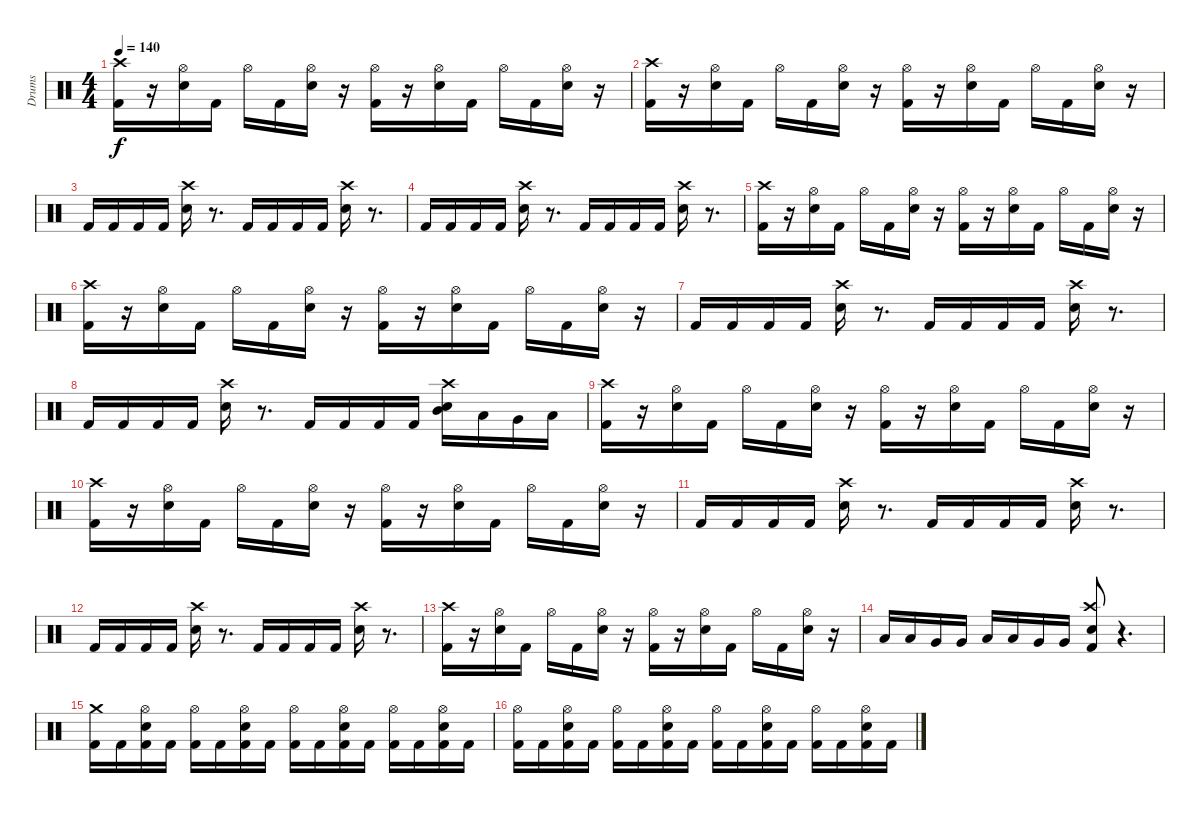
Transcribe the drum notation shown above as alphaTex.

\track ("Drums" "Drums") {instrument percussion}
\staff {score}
\articulation defaults
\ts (4 4)
\tempo 140
\clef neutral
\ks c
("Kick (hit) 2" "Crash high (hit)").16{dy f} r.16 ("Electric Snare (hit)" "Hi-Hat (open)").16 "Kick (hit) 2".16 "Hi-Hat (open)".16 "Kick (hit) 2".16 ("Hi-Hat (open)" "Electric Snare (hit)").16 r.16 ("Hi-Hat (open)" "Kick (hit) 2").16 r.16 ("Electric Snare (hit)" "Hi-Hat (open)").16 "Kick (hit) 2".16 "Hi-Hat (open)".16 "Kick (hit) 2".16 ("Hi-Hat (open)" "Electric Snare (hit)").16 r.16 |
("Kick (hit) 2" "Crash high (hit)").16 r.16 ("Electric Snare (hit)" "Hi-Hat (open)").16 "Kick (hit) 2".16 "Hi-Hat (open)".16 "Kick (hit) 2".16 ("Electric Snare (hit)" "Hi-Hat (open)").16 r.16 ("Hi-Hat (open)" "Kick (hit) 2").16 r.16 ("Hi-Hat (open)" "Electric Snare (hit)").16 "Kick (hit) 2".16 "Hi-Hat (open)".16 "Kick (hit) 2".16 ("Electric Snare (hit)" "Hi-Hat (open)").16 r.16 |
"Kick (hit) 2".16 "Kick (hit) 2".16 "Kick (hit) 2".16 "Kick (hit) 2".16 ("Crash high (hit)" "Electric Snare (hit)").16 r.8{d} "Kick (hit) 2".16 "Kick (hit) 2".16 "Kick (hit) 2".16 "Kick (hit) 2".16 ("Electric Snare (hit)" "Crash high (hit)").16 r.8{d} |
"Kick (hit) 2".16 "Kick (hit) 2".16 "Kick (hit) 2".16 "Kick (hit) 2".16 ("Electric Snare (hit)" "Crash high (hit)").16 r.8{d} "Kick (hit) 2".16 "Kick (hit) 2".16 "Kick (hit) 2".16 "Kick (hit) 2".16 ("Electric Snare (hit)" "Crash high (hit)").16 r.8{d} |
("Kick (hit) 2" "Crash high (hit)").16 r.16 ("Hi-Hat (open)" "Electric Snare (hit)").16 "Kick (hit) 2".16 "Hi-Hat (open)".16 "Kick (hit) 2".16 ("Hi-Hat (open)" "Electric Snare (hit)").16 r.16 ("Hi-Hat (open)" "Kick (hit) 2").16 r.16 ("Hi-Hat (open)" "Electric Snare (hit)").16 "Kick (hit) 2".16 "Hi-Hat (open)".16 "Kick (hit) 2".16 ("Electric Snare (hit)" "Hi-Hat (open)").16 r.16 |
("Crash high (hit)" "Kick (hit) 2").16 r.16 ("Hi-Hat (open)" "Electric Snare (hit)").16 "Kick (hit) 2".16 "Hi-Hat (open)".16 "Kick (hit) 2".16 ("Hi-Hat (open)" "Electric Snare (hit)").16 r.16 ("Kick (hit) 2" "Hi-Hat (open)").16 r.16 ("Electric Snare (hit)" "Hi-Hat (open)").16 "Kick (hit) 2".16 "Hi-Hat (open)".16 "Kick (hit) 2".16 ("Hi-Hat (open)" "Electric Snare (hit)").16 r.16 |
"Kick (hit) 2".16 "Kick (hit) 2".16 "Kick (hit) 2".16 "Kick (hit) 2".16 ("Electric Snare (hit)" "Crash high (hit)").16 r.8{d} "Kick (hit) 2".16 "Kick (hit) 2".16 "Kick (hit) 2".16 "Kick (hit) 2".16 ("Crash high (hit)" "Electric Snare (hit)").16 r.8{d} |
"Kick (hit) 2".16 "Kick (hit) 2".16 "Kick (hit) 2".16 "Kick (hit) 2".16 ("Electric Snare (hit)" "Crash high (hit)").16 r.8{d} "Kick (hit) 2".16 "Kick (hit) 2".16 "Kick (hit) 2".16 "Kick (hit) 2".16 ("Mid Tom (hit)" "Crash high (hit)" "Electric Snare (hit)").16 "Low Tom (hit)".16 "Very Low Tom (hit)".16 "Low Floor Tom (hit)".16 |
("Kick (hit) 2" "Crash high (hit)").16 r.16 ("Hi-Hat (open)" "Electric Snare (hit)").16 "Kick (hit) 2".16 "Hi-Hat (open)".16 "Kick (hit) 2".16 ("Hi-Hat (open)" "Electric Snare (hit)").16 r.16 ("Hi-Hat (open)" "Kick (hit) 2").16 r.16 ("Electric Snare (hit)" "Hi-Hat (open)").16 "Kick (hit) 2".16 "Hi-Hat (open)".16 "Kick (hit) 2".16 ("Hi-Hat (open)" "Electric Snare (hit)").16 r.16 |
("Kick (hit) 2" "Crash high (hit)").16 r.16 ("Electric Snare (hit)" "Hi-Hat (open)").16 "Kick (hit) 2".16 "Hi-Hat (open)".16 "Kick (hit) 2".16 ("Electric Snare (hit)" "Hi-Hat (open)").16 r.16 ("Kick (hit) 2" "Hi-Hat (open)").16 r.16 ("Hi-Hat (open)" "Electric Snare (hit)").16 "Kick (hit) 2".16 "Hi-Hat (open)".16 "Kick (hit) 2".16 ("Hi-Hat (open)" "Electric Snare (hit)").16 r.16 |
"Kick (hit) 2".16 "Kick (hit) 2".16 "Kick (hit) 2".16 "Kick (hit) 2".16 ("Crash high (hit)" "Electric Snare (hit)").16 r.8{d} "Kick (hit) 2".16 "Kick (hit) 2".16 "Kick (hit) 2".16 "Kick (hit) 2".16 ("Electric Snare (hit)" "Crash high (hit)").16 r.8{d} |
"Kick (hit) 2".16 "Kick (hit) 2".16 "Kick (hit) 2".16 "Kick (hit) 2".16 ("Crash high (hit)" "Electric Snare (hit)").16 r.8{d} "Kick (hit) 2".16 "Kick (hit) 2".16 "Kick (hit) 2".16 "Kick (hit) 2".16 ("Crash high (hit)" "Electric Snare (hit)").16 r.8{d} |
("Kick (hit) 2" "Crash high (hit)").16 r.16 ("Hi-Hat (open)" "Electric Snare (hit)").16 "Kick (hit) 2".16 "Hi-Hat (open)".16 "Kick (hit) 2".16 ("Electric Snare (hit)" "Hi-Hat (open)").16 r.16 ("Kick (hit) 2" "Hi-Hat (open)").16 r.16 ("Electric Snare (hit)" "Hi-Hat (open)").16 "Kick (hit) 2".16 "Hi-Hat (open)".16 "Kick (hit) 2".16 ("Electric Snare (hit)" "Hi-Hat (open)").16 r.16 |
"Low Floor Tom (hit)".16 "Low Floor Tom (hit)".16 "Very Low Tom (hit)".16 "Very Low Tom (hit)".16 "Low Tom (hit)".16 "Low Tom (hit)".16 "Very Low Tom (hit)".16 "Very Low Tom (hit)".16 ("Electric Snare (hit)" "Kick (hit) 2" "Crash high (hit)").8 r.4{d} |
("Kick (hit) 2" "Crash medium (hit)").16 "Kick (hit) 2".16 ("Electric Snare (hit)" "Hi-Hat (open)" "Kick (hit) 2").16 "Kick (hit) 2".16 ("Kick (hit) 2" "Hi-Hat (open)").16 "Kick (hit) 2".16 ("Electric Snare (hit)" "Hi-Hat (open)" "Kick (hit) 2").16 "Kick (hit) 2".16 ("Kick (hit) 2" "Hi-Hat (open)").16 "Kick (hit) 2".16 ("Electric Snare (hit)" "Kick (hit) 2" "Hi-Hat (open)").16 "Kick (hit) 2".16 ("Hi-Hat (open)" "Kick (hit) 2").16 "Kick (hit) 2".16 ("Electric Snare (hit)" "Kick (hit) 2" "Hi-Hat (open)").16 "Kick (hit) 2".16 |
("Hi-Hat (open)" "Kick (hit) 2").16 "Kick (hit) 2".16 ("Hi-Hat (open)" "Kick (hit) 2" "Electric Snare (hit)").16 "Kick (hit) 2".16 ("Hi-Hat (open)" "Kick (hit) 2").16 "Kick (hit) 2".16 ("Hi-Hat (open)" "Kick (hit) 2" "Electric Snare (hit)").16 "Kick (hit) 2".16 ("Hi-Hat (open)" "Kick (hit) 2").16 "Kick (hit) 2".16 ("Electric Snare (hit)" "Kick (hit) 2" "Hi-Hat (open)").16 "Kick (hit) 2".16 ("Hi-Hat (open)" "Kick (hit) 2").16 "Kick (hit) 2".16 ("Hi-Hat (open)" "Kick (hit) 2" "Electric Snare (hit)").16 "Kick (hit) 2".16
